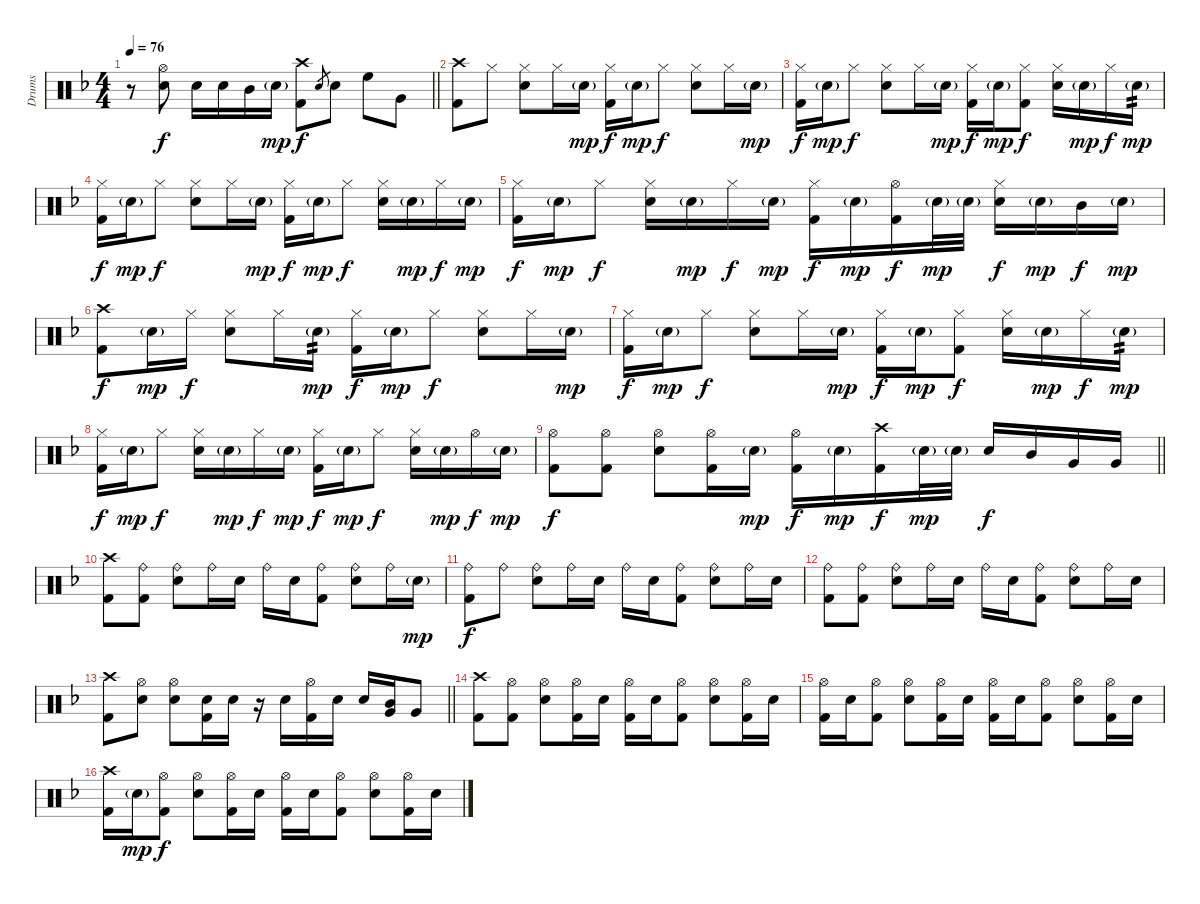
\track ("Drums" "Drums") {instrument percussion}
\staff {score}
\articulation defaults
\ts (4 4)
\tempo 76
\clef neutral
\barLineRight lightlight
\ks f
r.8{dy f} ("Hi-Hat (open)" "Electric Snare (hit)").8 "Electric Snare (hit)".16 "Electric Snare (hit)".16 "Mid Tom (hit)".16 "Electric Snare (hit)"{g}.16{dy mp} ("Crash high (hit)" "Kick (hit) 2").8{dy f} "Electric Snare (hit)".8{gr} "Electric Snare (hit)".8 "High Floor Tom (hit)".8 "Very Low Tom (hit)".8 |
("Crash high (hit)" "Kick (hit) 2").8 "Hi-Hat (closed)".8 ("Hi-Hat (closed)" "Electric Snare (hit)").8 "Hi-Hat (closed)".16 "Electric Snare (hit)"{g}.16{dy mp} ("Hi-Hat (closed)" "Kick (hit) 2").16{dy f} "Electric Snare (hit)"{g}.16{dy mp} "Hi-Hat (closed)".8{dy f} ("Hi-Hat (closed)" "Electric Snare (hit)").8 "Hi-Hat (closed)".16 "Electric Snare (hit)"{g}.16{dy mp} |
("Hi-Hat (closed)" "Kick (hit) 2").16{dy f} "Electric Snare (hit)"{g}.16{dy mp} "Hi-Hat (closed)".8{dy f} ("Hi-Hat (closed)" "Electric Snare (hit)").8 "Hi-Hat (closed)".16 "Electric Snare (hit)"{g}.16{dy mp} ("Hi-Hat (closed)" "Kick (hit) 2").16{dy f} "Electric Snare (hit)"{g}.16{dy mp} ("Hi-Hat (closed)" "Kick (hit) 2").8{dy f} ("Hi-Hat (closed)" "Electric Snare (hit)").16 "Electric Snare (hit)"{g}.16{dy mp} "Hi-Hat (closed)".16{dy f} "Electric Snare (hit)"{g}.16{tp 2 dy mp} |
("Hi-Hat (closed)" "Kick (hit) 2").16{dy f} "Electric Snare (hit)"{g}.16{dy mp} "Hi-Hat (closed)".8{dy f} ("Hi-Hat (closed)" "Electric Snare (hit)").8 "Hi-Hat (closed)".16 "Electric Snare (hit)"{g}.16{dy mp} ("Hi-Hat (closed)" "Kick (hit) 2").16{dy f} "Electric Snare (hit)"{g}.16{dy mp} "Hi-Hat (closed)".8{dy f} ("Hi-Hat (closed)" "Electric Snare (hit)").16 "Electric Snare (hit)"{g}.16{dy mp} "Hi-Hat (closed)".16{dy f} "Electric Snare (hit)"{g}.16{dy mp} |
("Hi-Hat (closed)" "Kick (hit) 2").16{dy f} "Electric Snare (hit)"{g}.16{dy mp} "Hi-Hat (closed)".8{dy f} ("Hi-Hat (closed)" "Electric Snare (hit)").16 "Electric Snare (hit)"{g}.16{dy mp} "Hi-Hat (closed)".16{dy f} "Electric Snare (hit)"{g}.16{dy mp} ("Hi-Hat (closed)" "Kick (hit) 2").16{dy f} "Electric Snare (hit)"{g}.16{dy mp} ("Hi-Hat (open)" "Kick (hit) 2").16{dy f} "Electric Snare (hit)"{g}.32{dy mp} "Electric Snare (hit)"{g}.32 ("Hi-Hat (closed)" "Electric Snare (hit)").16{dy f} "Electric Snare (hit)"{g}.16{dy mp} "Mid Tom (hit)".16{dy f} "Electric Snare (hit)"{g}.16{dy mp} |
("Crash high (hit)" "Kick (hit) 2").8{dy f} "Electric Snare (hit)"{g}.16{dy mp} "Hi-Hat (closed)".16{dy f} ("Hi-Hat (closed)" "Electric Snare (hit)").8 "Hi-Hat (closed)".16 "Electric Snare (hit)"{g}.16{tp 2 dy mp} ("Hi-Hat (closed)" "Kick (hit) 2").16{dy f} "Electric Snare (hit)"{g}.16{dy mp} "Hi-Hat (closed)".8{dy f} ("Hi-Hat (closed)" "Electric Snare (hit)").8 "Hi-Hat (closed)".16 "Electric Snare (hit)"{g}.16{dy mp} |
("Hi-Hat (closed)" "Kick (hit) 2").16{dy f} "Electric Snare (hit)"{g}.16{dy mp} "Hi-Hat (closed)".8{dy f} ("Hi-Hat (closed)" "Electric Snare (hit)").8 "Hi-Hat (closed)".16 "Electric Snare (hit)"{g}.16{dy mp} ("Hi-Hat (closed)" "Kick (hit) 2").16{dy f} "Electric Snare (hit)"{g}.16{dy mp} ("Hi-Hat (closed)" "Kick (hit) 2").8{dy f} ("Hi-Hat (closed)" "Electric Snare (hit)").16 "Electric Snare (hit)"{g}.16{dy mp} "Hi-Hat (closed)".16{dy f} "Electric Snare (hit)"{g}.16{tp 2 dy mp} |
("Hi-Hat (closed)" "Kick (hit) 2").16{dy f} "Electric Snare (hit)"{g}.16{dy mp} "Hi-Hat (closed)".8{dy f} ("Hi-Hat (closed)" "Electric Snare (hit)").16 "Electric Snare (hit)"{g}.16{dy mp} "Hi-Hat (closed)".16{dy f} "Electric Snare (hit)"{g}.16{dy mp} ("Hi-Hat (closed)" "Kick (hit) 2").16{dy f} "Electric Snare (hit)"{g}.16{dy mp} "Hi-Hat (closed)".8{dy f} ("Hi-Hat (closed)" "Electric Snare (hit)").16 "Electric Snare (hit)"{g}.16{dy mp} "Hi-Hat (open)".16{dy f} "Electric Snare (hit)"{g}.16{dy mp} |
\barLineRight lightlight
("Hi-Hat (open)" "Kick (hit) 2").8{dy f} ("Hi-Hat (open)" "Kick (hit) 2").8 ("Hi-Hat (open)" "Electric Snare (hit)").8 ("Hi-Hat (open)" "Kick (hit) 2").16 "Electric Snare (hit)"{g}.16{dy mp} ("Hi-Hat (open)" "Kick (hit) 2").16{dy f} "Electric Snare (hit)"{g}.16{dy mp} ("Crash high (hit)" "Kick (hit) 2").16{dy f} "Electric Snare (hit)"{g}.32{dy mp} "Electric Snare (hit)"{g}.32 "Electric Snare (hit)".16{dy f} "Mid Tom (hit)".16 "Very Low Tom (hit)".16 "Very Low Tom (hit)".16 |
("Crash high (hit)" "Kick (hit) 2").8 ("Ride (bell)" "Kick (hit) 2").8 ("Ride (bell)" "Electric Snare (hit)").8 "Ride (bell)".16 "Electric Snare (hit)".16 "Ride (bell)".16 "Electric Snare (hit)".16 ("Ride (bell)" "Kick (hit) 2").8 ("Ride (bell)" "Electric Snare (hit)").8 "Ride (bell)".16 "Electric Snare (hit)"{g}.16{dy mp} |
("Ride (bell)" "Kick (hit) 2").8{dy f} "Ride (bell)".8 ("Ride (bell)" "Electric Snare (hit)").8 "Ride (bell)".16 "Electric Snare (hit)".16 "Ride (bell)".16 "Electric Snare (hit)".16 ("Ride (bell)" "Kick (hit) 2").8 ("Ride (bell)" "Electric Snare (hit)").8 "Ride (bell)".16 "Electric Snare (hit)".16 |
("Ride (bell)" "Kick (hit) 2").8 ("Ride (bell)" "Kick (hit) 2").8 ("Ride (bell)" "Electric Snare (hit)").8 "Ride (bell)".16 "Electric Snare (hit)".16 "Ride (bell)".16 "Electric Snare (hit)".16 ("Ride (bell)" "Kick (hit) 2").8 ("Ride (bell)" "Electric Snare (hit)").8 "Ride (bell)".16 "Electric Snare (hit)".16 |
\barLineRight lightlight
("Crash high (hit)" "Kick (hit) 2").8 ("Hi-Hat (open)" "Electric Snare (hit)").8 ("Hi-Hat (open)" "Electric Snare (hit)").8 ("Electric Snare (hit)" "Kick (hit) 2").16 "Electric Snare (hit)".16 r.16 "Electric Snare (hit)".16 ("Hi-Hat (open)" "Kick (hit) 2").16 "Electric Snare (hit)".16 "Electric Snare (hit)".16 ("Mid Tom (hit)" "Very Low Tom (hit)").16 "Very Low Tom (hit)".8 |
("Crash high (hit)" "Kick (hit) 2").8 ("Hi-Hat (open)" "Kick (hit) 2").8 ("Hi-Hat (open)" "Electric Snare (hit)").8 ("Hi-Hat (open)" "Kick (hit) 2").16 "Electric Snare (hit)".16 ("Hi-Hat (open)" "Kick (hit) 2").16 "Electric Snare (hit)".16 ("Hi-Hat (open)" "Kick (hit) 2").8 ("Hi-Hat (open)" "Electric Snare (hit)").8 ("Hi-Hat (open)" "Kick (hit) 2").16 "Electric Snare (hit)".16 |
("Hi-Hat (open)" "Kick (hit) 2").16 "Electric Snare (hit)".16 ("Hi-Hat (open)" "Kick (hit) 2").8 ("Hi-Hat (open)" "Electric Snare (hit)").8 ("Hi-Hat (open)" "Kick (hit) 2").16 "Electric Snare (hit)".16 ("Hi-Hat (open)" "Kick (hit) 2").16 "Electric Snare (hit)".16 ("Hi-Hat (open)" "Kick (hit) 2").8 ("Hi-Hat (open)" "Electric Snare (hit)").8 ("Hi-Hat (open)" "Kick (hit) 2").16 "Electric Snare (hit)".16 |
("Crash high (hit)" "Kick (hit) 2").16 "Electric Snare (hit)"{g}.16{dy mp} ("Hi-Hat (open)" "Kick (hit) 2").8{dy f} ("Hi-Hat (open)" "Electric Snare (hit)").8 ("Hi-Hat (open)" "Kick (hit) 2").16 "Electric Snare (hit)".16 ("Hi-Hat (open)" "Kick (hit) 2").16 "Electric Snare (hit)".16 ("Hi-Hat (open)" "Kick (hit) 2").8 ("Hi-Hat (open)" "Electric Snare (hit)").8 ("Hi-Hat (open)" "Kick (hit) 2").16 "Electric Snare (hit)".16
